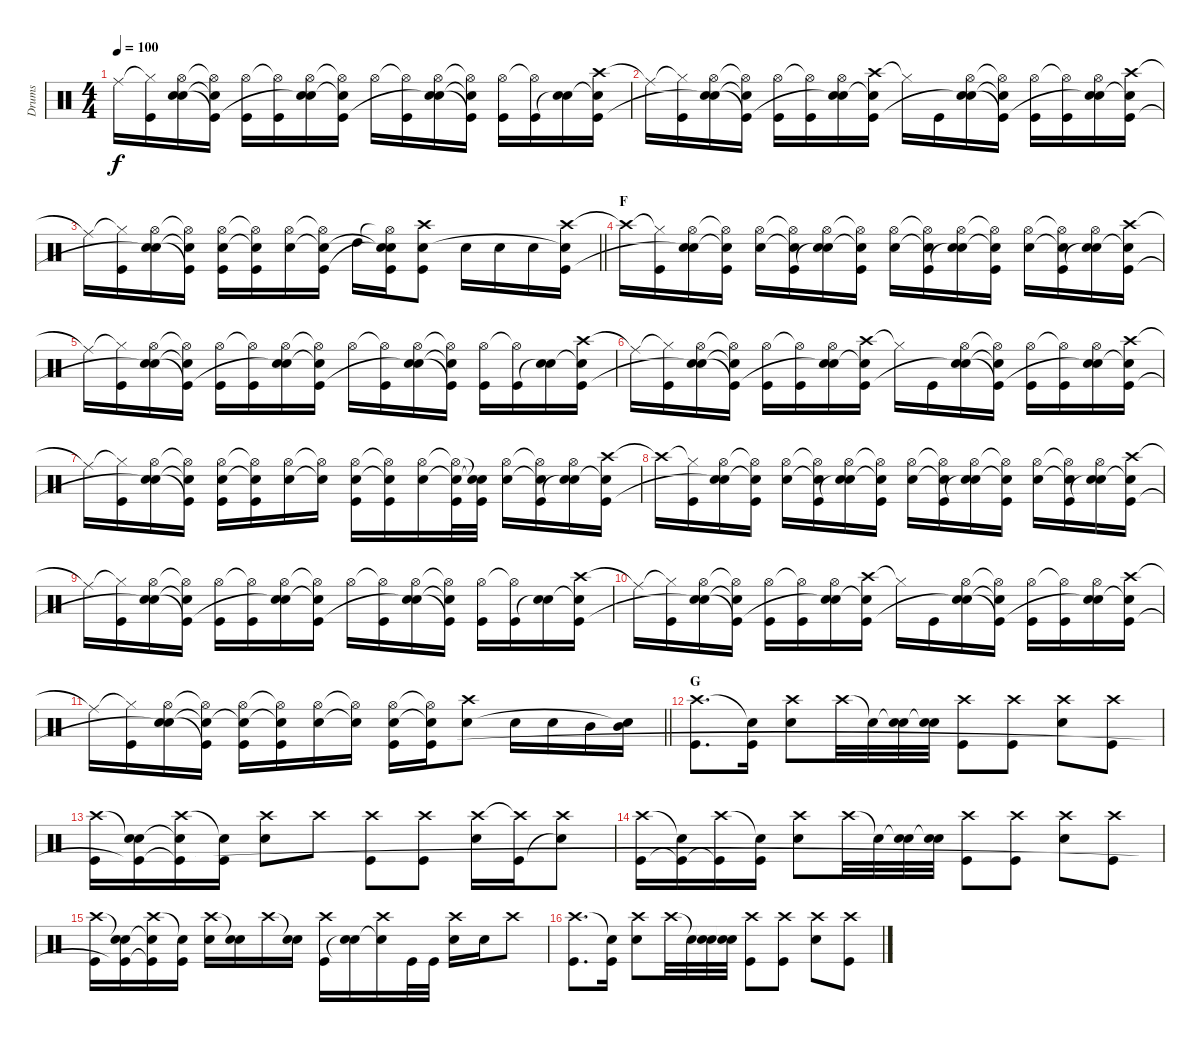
\track ("Drums" "Drums") {instrument percussion}
\staff {score}
\articulation defaults
\ts (4 4)
\tempo 100
\clef neutral
\ks c "Ride (middle)"{t}.16{dy f}
("Hi-Hat (closed)"{t} "Kick (hit)").16 ("Hi-Hat (open)" "Snare (hit) 2" "Snare (hit)"{t}).16 ("Hi-Hat (open)"{t} "Snare (hit) 2"{t} "Kick (hit)"{t}).16 ("Hi-Hat (open)" "Kick (hit)").16 ("Hi-Hat (open)"{t} "Kick (hit)").16 ("Hi-Hat (open)" "Snare (hit) 2" "Snare (hit)"{t}).16 ("Hi-Hat (open)"{t} "Snare (hit) 2"{t} "Kick (hit)").16 "Hi-Hat (open)".16 ("Hi-Hat (open)"{t} "Kick (hit)").16 ("Hi-Hat (open)" "Snare (hit) 2" "Snare (hit)"{t}).16 ("Hi-Hat (open)"{t} "Snare (hit) 2"{t} "Kick (hit)"{t}).16 ("Hi-Hat (open)" "Kick (hit)").16 ("Hi-Hat (open)"{t} "Kick (hit)").16 ("Snare (hit) 2" "Snare (hit)"{t}).16 ("Crash high (hit)" "Snare (hit) 2"{t} "Kick (hit)").16 |
"Ride (middle)"{t}.16 ("Hi-Hat (closed)"{t} "Kick (hit)").16 ("Hi-Hat (open)" "Snare (hit) 2" "Snare (hit)"{t}).16 ("Hi-Hat (open)"{t} "Snare (hit) 2"{t} "Kick (hit)"{t}).16 ("Hi-Hat (open)" "Kick (hit)").16 ("Hi-Hat (open)"{t} "Kick (hit)").16 ("Hi-Hat (open)" "Snare (hit) 2" "Snare (hit)"{t}).16 ("Crash high (hit)" "Snare (hit) 2"{t} "Kick (hit)").16 "Hi-Hat (closed)"{t}.16 "Kick (hit)".16 ("Hi-Hat (open)" "Snare (hit) 2" "Snare (hit)"{t}).16 ("Hi-Hat (open)"{t} "Snare (hit) 2"{t} "Kick (hit)"{t}).16 ("Hi-Hat (open)" "Kick (hit)").16 ("Hi-Hat (open)"{t} "Kick (hit)").16 ("Hi-Hat (open)" "Snare (hit) 2" "Snare (hit)"{t}).16 ("Crash high (hit)" "Snare (hit) 2"{t} "Kick (hit)").16 |
\barLineRight lightlight "Ride (middle)"{t}.16
("Hi-Hat (closed)"{t} "Kick (hit)").16 ("Hi-Hat (open)" "Snare (hit) 2" "Snare (hit)"{t}).16 ("Hi-Hat (open)"{t} "Snare (hit) 2"{t} "Kick (hit)"{t}).16 ("Hi-Hat (open)" "Snare (hit) 2" "Kick (hit)").16 ("Hi-Hat (open)"{t} "Snare (hit) 2"{t} "Kick (hit)").16 ("Hi-Hat (open)" "Snare (hit) 2").16 ("Hi-Hat (open)"{t} "Snare (hit) 2"{t} "Kick (hit)").16 "High Tom (hit)".16 ("Hi-Hat (open)"{t} "Snare (hit)"{t} "Snare (hit) 2"{t} "Kick (hit)").16 ("Crash high (hit)" "Snare (hit) 2" "Kick (hit)").8 "Snare (hit) 2".16 "Snare (hit) 2".16 "Snare (hit) 2".16 ("Crash high (hit)" "Snare (hit) 2"{t} "Kick (hit)").16 |
\section ("" "F")
"Crash high (hit)"{t}.16 ("Hi-Hat (closed)"{t} "Kick (hit)").16 ("Hi-Hat (open)" "Snare (hit) 2" "Snare (hit)"{t}).16 ("Hi-Hat (open)"{t} "Snare (hit) 2"{t} "Kick (hit)").16 ("Hi-Hat (open)" "Snare (hit) 2").16 ("Hi-Hat (open)"{t} "Snare (hit) 2"{t} "Kick (hit)").16 ("Hi-Hat (open)" "Snare (hit) 2" "Snare (hit)"{t}).16 ("Hi-Hat (open)"{t} "Snare (hit) 2"{t} "Kick (hit)").16 ("Hi-Hat (open)" "Snare (hit) 2").16 ("Hi-Hat (open)"{t} "Snare (hit) 2"{t} "Kick (hit)").16 ("Hi-Hat (open)" "Snare (hit) 2" "Snare (hit)"{t}).16 ("Hi-Hat (open)"{t} "Snare (hit) 2"{t} "Kick (hit)").16 ("Hi-Hat (open)" "Snare (hit) 2").16 ("Hi-Hat (open)"{t} "Snare (hit) 2"{t} "Kick (hit)").16 ("Hi-Hat (open)" "Snare (hit) 2" "Snare (hit)"{t}).16 ("Crash high (hit)" "Snare (hit) 2"{t} "Kick (hit)").16 |
"Ride (middle)"{t}.16 ("Hi-Hat (closed)"{t} "Kick (hit)").16 ("Hi-Hat (open)" "Snare (hit) 2" "Snare (hit)"{t}).16 ("Hi-Hat (open)"{t} "Snare (hit) 2"{t} "Kick (hit)"{t}).16 ("Hi-Hat (open)" "Kick (hit)").16 ("Hi-Hat (open)"{t} "Kick (hit)").16 ("Hi-Hat (open)" "Snare (hit) 2" "Snare (hit)"{t}).16 ("Hi-Hat (open)"{t} "Snare (hit) 2"{t} "Kick (hit)").16 "Hi-Hat (open)".16 ("Hi-Hat (open)"{t} "Kick (hit)").16 ("Hi-Hat (open)" "Snare (hit) 2" "Snare (hit)"{t}).16 ("Hi-Hat (open)"{t} "Snare (hit) 2"{t} "Kick (hit)"{t}).16 ("Hi-Hat (open)" "Kick (hit)").16 ("Hi-Hat (open)"{t} "Kick (hit)").16 ("Snare (hit) 2" "Snare (hit)"{t}).16 ("Crash high (hit)" "Snare (hit) 2"{t} "Kick (hit)").16 |
"Ride (middle)"{t}.16 ("Hi-Hat (closed)"{t} "Kick (hit)").16 ("Hi-Hat (open)" "Snare (hit) 2" "Snare (hit)"{t}).16 ("Hi-Hat (open)"{t} "Snare (hit) 2"{t} "Kick (hit)"{t}).16 ("Hi-Hat (open)" "Kick (hit)").16 ("Hi-Hat (open)"{t} "Kick (hit)").16 ("Hi-Hat (open)" "Snare (hit) 2" "Snare (hit)"{t}).16 ("Crash high (hit)" "Snare (hit) 2"{t} "Kick (hit)").16 "Hi-Hat (closed)"{t}.16 "Kick (hit)".16 ("Hi-Hat (open)" "Snare (hit) 2" "Snare (hit)"{t}).16 ("Hi-Hat (open)"{t} "Snare (hit) 2"{t} "Kick (hit)"{t}).16 ("Hi-Hat (open)" "Kick (hit)").16 ("Hi-Hat (open)"{t} "Kick (hit)").16 ("Hi-Hat (open)" "Snare (hit) 2" "Snare (hit)"{t}).16 ("Crash high (hit)" "Snare (hit) 2"{t} "Kick (hit)").16 |
"Ride (middle)"{t}.16 ("Hi-Hat (closed)"{t} "Kick (hit)").16 ("Hi-Hat (open)" "Snare (hit) 2" "Snare (hit)"{t}).16 ("Hi-Hat (open)"{t} "Snare (hit) 2"{t} "Kick (hit)"{t}).16 ("Hi-Hat (open)" "Snare (hit) 2" "Kick (hit)").16 ("Hi-Hat (open)"{t} "Snare (hit) 2"{t} "Kick (hit)").16 ("Hi-Hat (open)" "Snare (hit) 2").16 ("Hi-Hat (open)"{t} "Snare (hit) 2"{t}).16 ("Hi-Hat (open)" "Snare (hit) 2" "Kick (hit)").16 ("Hi-Hat (open)"{t} "Snare (hit) 2"{t} "Kick (hit)").16 ("Hi-Hat (open)" "Snare (hit) 2").16 ("Hi-Hat (open)"{t} "Snare (hit) 2"{t} "Kick (hit)").32 ("Snare (hit)"{t} "Snare (hit)"{t} "Kick (hit)").32 ("Hi-Hat (open)" "Snare (hit) 2").16 ("Hi-Hat (open)"{t} "Snare (hit) 2"{t} "Kick (hit)").16 ("Hi-Hat (open)" "Snare (hit) 2" "Snare (hit)"{t}).16 ("Crash high (hit)" "Snare (hit) 2"{t} "Kick (hit)").16 |
"Crash high (hit)"{t}.16 ("Hi-Hat (closed)"{t} "Kick (hit)").16 ("Hi-Hat (open)" "Snare (hit) 2" "Snare (hit)"{t}).16 ("Hi-Hat (open)"{t} "Snare (hit) 2"{t} "Kick (hit)").16 ("Hi-Hat (open)" "Snare (hit) 2").16 ("Hi-Hat (open)"{t} "Snare (hit) 2"{t} "Kick (hit)").16 ("Hi-Hat (open)" "Snare (hit) 2" "Snare (hit)"{t}).16 ("Hi-Hat (open)"{t} "Snare (hit) 2"{t} "Kick (hit)").16 ("Hi-Hat (open)" "Snare (hit) 2").16 ("Hi-Hat (open)"{t} "Snare (hit) 2"{t} "Kick (hit)").16 ("Hi-Hat (open)" "Snare (hit) 2" "Snare (hit)"{t}).16 ("Hi-Hat (open)"{t} "Snare (hit) 2"{t} "Kick (hit)").16 ("Hi-Hat (open)" "Snare (hit) 2").16 ("Hi-Hat (open)"{t} "Snare (hit) 2"{t} "Kick (hit)").16 ("Hi-Hat (open)" "Snare (hit) 2" "Snare (hit)"{t}).16 ("Crash high (hit)" "Snare (hit) 2"{t} "Kick (hit)").16 |
"Ride (middle)"{t}.16 ("Hi-Hat (closed)"{t} "Kick (hit)").16 ("Hi-Hat (open)" "Snare (hit) 2" "Snare (hit)"{t}).16 ("Hi-Hat (open)"{t} "Snare (hit) 2"{t} "Kick (hit)"{t}).16 ("Hi-Hat (open)" "Kick (hit)").16 ("Hi-Hat (open)"{t} "Kick (hit)").16 ("Hi-Hat (open)" "Snare (hit) 2" "Snare (hit)"{t}).16 ("Hi-Hat (open)"{t} "Snare (hit) 2"{t} "Kick (hit)").16 "Hi-Hat (open)".16 ("Hi-Hat (open)"{t} "Kick (hit)").16 ("Hi-Hat (open)" "Snare (hit) 2" "Snare (hit)"{t}).16 ("Hi-Hat (open)"{t} "Snare (hit) 2"{t} "Kick (hit)"{t}).16 ("Hi-Hat (open)" "Kick (hit)").16 ("Hi-Hat (open)"{t} "Kick (hit)").16 ("Snare (hit) 2" "Snare (hit)"{t}).16 ("Crash high (hit)" "Snare (hit) 2"{t} "Kick (hit)").16 |
"Ride (middle)"{t}.16 ("Hi-Hat (closed)"{t} "Kick (hit)").16 ("Hi-Hat (open)" "Snare (hit) 2" "Snare (hit)"{t}).16 ("Hi-Hat (open)"{t} "Snare (hit) 2"{t} "Kick (hit)"{t}).16 ("Hi-Hat (open)" "Kick (hit)").16 ("Hi-Hat (open)"{t} "Kick (hit)").16 ("Hi-Hat (open)" "Snare (hit) 2" "Snare (hit)"{t}).16 ("Crash high (hit)" "Snare (hit) 2"{t} "Kick (hit)").16 "Hi-Hat (closed)"{t}.16 "Kick (hit)".16 ("Hi-Hat (open)" "Snare (hit) 2" "Snare (hit)"{t}).16 ("Hi-Hat (open)"{t} "Snare (hit) 2"{t} "Kick (hit)"{t}).16 ("Hi-Hat (open)" "Kick (hit)").16 ("Hi-Hat (open)"{t} "Kick (hit)").16 ("Hi-Hat (open)" "Snare (hit) 2" "Snare (hit)"{t}).16 ("Crash high (hit)" "Snare (hit) 2"{t} "Kick (hit)").16 |
\barLineRight lightlight "Ride (middle)"{t}.16
("Hi-Hat (closed)"{t} "Kick (hit)").16 ("Hi-Hat (open)" "Snare (hit) 2" "Snare (hit)"{t}).16 ("Hi-Hat (open)"{t} "Snare (hit) 2"{t} "Kick (hit)"{t}).16 ("Hi-Hat (open)" "Snare (hit) 2"{t} "Kick (hit)").16 ("Hi-Hat (open)"{t} "Snare (hit) 2"{t} "Kick (hit)").16 ("Hi-Hat (open)" "Snare (hit) 2").16 ("Hi-Hat (open)"{t} "Snare (hit) 2"{t}).16 ("Hi-Hat (open)" "Snare (hit) 2" "Kick (hit)").16 ("Hi-Hat (open)"{t} "Snare (hit) 2"{t} "Kick (hit)").16 ("Crash high (hit)" "Snare (hit) 2").8 "Snare (hit) 2".16 "Snare (hit) 2".16 "Mid Tom (hit)".16 ("Mid Tom (hit)" "Snare (hit) 2"{t}).16 |
\section ("" "G")
("Crash high (hit)" "Kick (hit)").8{d} ("Snare (hit)"{t} "Kick (hit)").16 ("Crash high (hit)" "Snare (hit) 2").8 "Crash high (hit)".32 "Snare (hit)"{t}.32 ("Snare (hit)"{t} "Snare (hit) 2").32 ("Snare (hit)"{t} "Snare (hit) 2").32 ("Crash high (hit)" "Kick (hit)").8 ("Crash high (hit)" "Kick (hit)").8 ("Crash high (hit)" "Snare (hit) 2").8 ("Crash high (hit)" "Kick (hit)").8 |
("Crash high (hit)" "Kick (hit)").16 ("Snare (hit)"{t} "Snare (hit) 2" "Kick (hit)"{t}).16 ("Crash high (hit)" "Snare (hit)"{t} "Kick (hit)"{t}).16 ("Snare (hit)"{t} "Kick (hit)").16 ("Crash high (hit)" "Snare (hit) 2").8 "Crash high (hit)".8 ("Crash high (hit)" "Kick (hit)").8 ("Crash high (hit)" "Kick (hit)").8 ("Crash high (hit)" "Snare (hit) 2").16 ("Crash high (hit)"{t} "Kick (hit)").16 ("Crash high (hit)" "Snare (hit)"{t}).8 |
("Crash high (hit)" "Kick (hit)").16 ("Snare (hit)"{t} "Kick (hit)"{t}).16 ("Crash high (hit)" "Kick (hit)"{t}).16 ("Snare (hit)"{t} "Kick (hit)").16 ("Crash high (hit)" "Snare (hit) 2").8 "Crash high (hit)".32 "Snare (hit)"{t}.32 ("Snare (hit)"{t} "Snare (hit) 2").32 ("Snare (hit)"{t} "Snare (hit) 2").32 ("Crash high (hit)" "Kick (hit)").8 ("Crash high (hit)" "Kick (hit)").8 ("Crash high (hit)" "Snare (hit) 2").8 ("Crash high (hit)" "Kick (hit)").8 |
("Crash high (hit)" "Kick (hit)").16 ("Snare (hit)"{t} "Snare (hit) 2" "Kick (hit)"{t}).16 ("Crash high (hit)" "Snare (hit)"{t} "Kick (hit)"{t}).16 ("Snare (hit)"{t} "Kick (hit)").16 ("Crash high (hit)" "Snare (hit) 2").16 ("Snare (hit)"{t} "Snare (hit) 2").16 "Crash high (hit)".16 ("Snare (hit)"{t} "Snare (hit) 2").16 ("Crash high (hit)" "Kick (hit)").16 ("Snare (hit) 2" "Snare (hit)"{t}).16 ("Crash high (hit)" "Snare (hit)"{t}).16 "Kick (hit)".32 "Kick (hit)".32 ("Crash high (hit)" "Snare (hit) 2").16 "Snare (hit) 2".16 "Crash high (hit)".8 |
("Crash high (hit)" "Kick (hit)").8{d} ("Snare (hit)"{t} "Kick (hit)").16 ("Crash high (hit)" "Snare (hit) 2").8 "Crash high (hit)".32 "Snare (hit)"{t}.32 ("Snare (hit)"{t} "Snare (hit) 2").32 ("Snare (hit)"{t} "Snare (hit) 2").32 ("Crash high (hit)" "Kick (hit)").8 ("Crash high (hit)" "Kick (hit)").8 ("Crash high (hit)" "Snare (hit) 2").8 ("Crash high (hit)" "Kick (hit)").8
